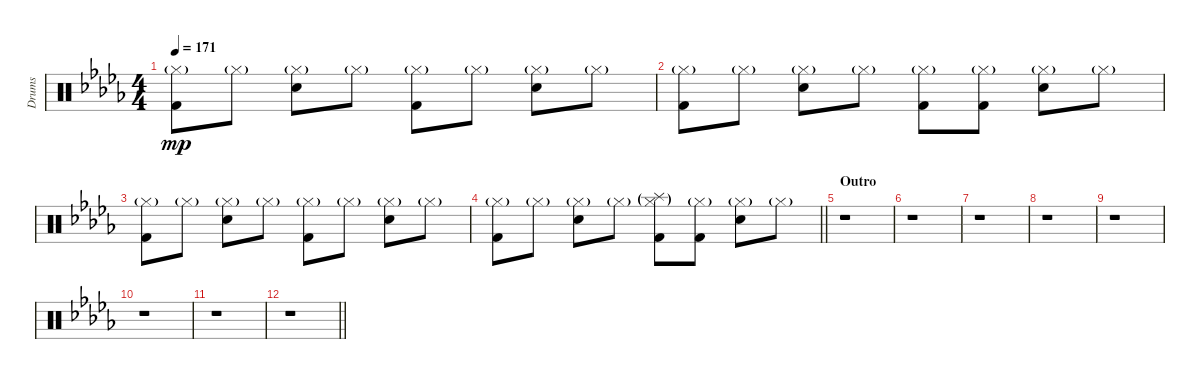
\track ("Drums" "Drums") {instrument percussion}
\staff {score}
\articulation defaults
\ts (4 4)
\tempo 171
\clef neutral
\ks db
("Hi-Hat (closed)"{g} "Kick (hit) 2").8{dy mp} "Hi-Hat (closed)"{g}.8 ("Hi-Hat (closed)"{g} "Snare (hit) 2").8 "Hi-Hat (closed)"{g}.8 ("Hi-Hat (closed)"{g} "Kick (hit) 2").8 "Hi-Hat (closed)"{g}.8 ("Hi-Hat (closed)"{g} "Snare (hit) 2").8 "Hi-Hat (closed)"{g}.8 |
("Hi-Hat (closed)"{g} "Kick (hit) 2").8 "Hi-Hat (closed)"{g}.8 ("Hi-Hat (closed)"{g} "Snare (hit) 2").8 "Hi-Hat (closed)"{g}.8 ("Hi-Hat (closed)"{g} "Kick (hit) 2").8 ("Hi-Hat (closed)"{g} "Kick (hit) 2").8 ("Hi-Hat (closed)"{g} "Snare (hit) 2").8 "Hi-Hat (closed)"{g}.8 |
("Hi-Hat (closed)"{g} "Kick (hit) 2").8 "Hi-Hat (closed)"{g}.8 ("Hi-Hat (closed)"{g} "Snare (hit) 2").8 "Hi-Hat (closed)"{g}.8 ("Hi-Hat (closed)"{g} "Kick (hit) 2").8 "Hi-Hat (closed)"{g}.8 ("Hi-Hat (closed)"{g} "Snare (hit) 2").8 "Hi-Hat (closed)"{g}.8 |
\barLineRight lightlight
("Hi-Hat (closed)"{g} "Kick (hit) 2").8 "Hi-Hat (closed)"{g}.8 ("Hi-Hat (closed)"{g} "Snare (hit) 2").8 "Hi-Hat (closed)"{g}.8 ("Splash (hit)"{g} "Hi-Hat (closed)"{g} "Kick (hit) 2").8 ("Hi-Hat (closed)"{g} "Kick (hit) 2").8 ("Hi-Hat (closed)"{g} "Snare (hit) 2").8 "Hi-Hat (closed)"{g}.8 |
\section ("" "Outro")
r.1 |
r.1 |
r.1 |
r.1 |
r.1 |
r.1 |
r.1 |
\barLineRight lightlight
r.1
